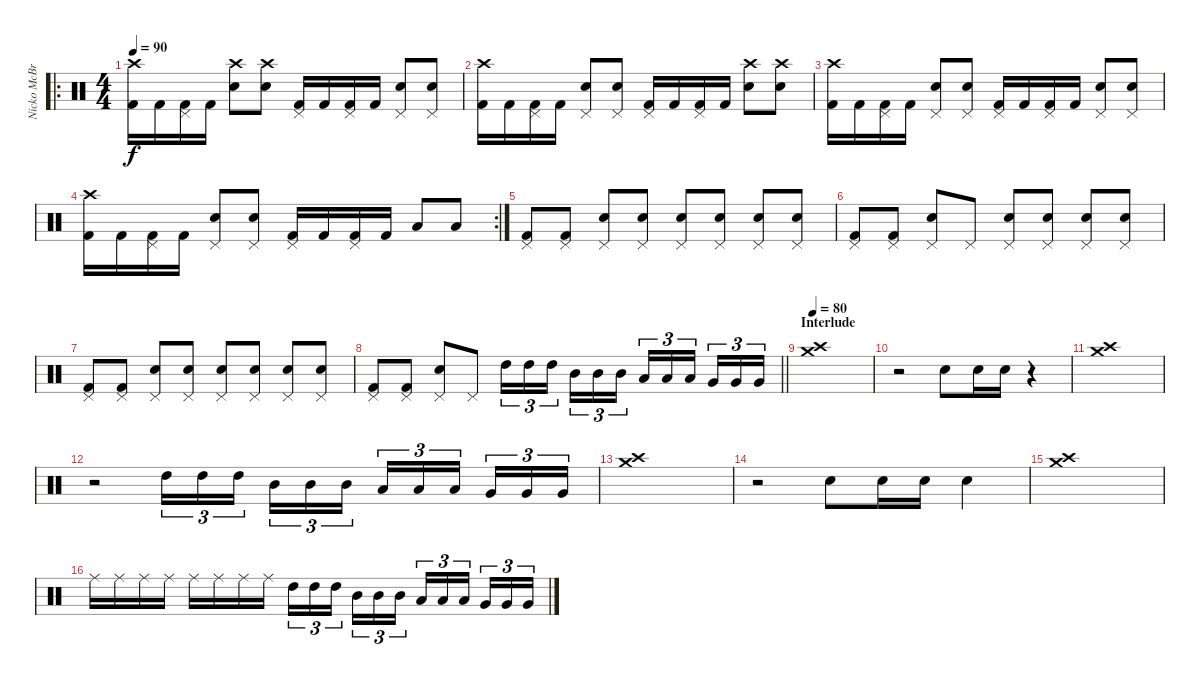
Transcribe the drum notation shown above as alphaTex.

\track ("Nicko McBrain" "Nicko McBr") {instrument percussion}
\staff {score}
\articulation defaults
\ro
\ts (4 4)
\tempo 90
\clef neutral
\ks c
("Crash high (hit)" "Kick (hit) 2").16{dy f} "Kick (hit) 2".16 ("Pedal Hi-Hat (hit)" "Kick (hit) 2").16 "Kick (hit) 2".16 ("Crash high (hit)" "Snare (hit) 2").8 ("Crash high (hit)" "Snare (hit) 2").8 ("Pedal Hi-Hat (hit)" "Kick (hit) 2").16 "Kick (hit) 2".16 ("Pedal Hi-Hat (hit)" "Kick (hit) 2").16 "Kick (hit) 2".16 ("Pedal Hi-Hat (hit)" "Snare (hit) 2").8 ("Pedal Hi-Hat (hit)" "Snare (hit) 2").8 |
("Crash high (hit)" "Kick (hit) 2").16 "Kick (hit) 2".16 ("Pedal Hi-Hat (hit)" "Kick (hit) 2").16 "Kick (hit) 2".16 ("Pedal Hi-Hat (hit)" "Snare (hit) 2").8 ("Pedal Hi-Hat (hit)" "Snare (hit) 2").8 ("Pedal Hi-Hat (hit)" "Kick (hit) 2").16 "Kick (hit) 2".16 ("Pedal Hi-Hat (hit)" "Kick (hit) 2").16 "Kick (hit) 2".16 ("Crash high (hit)" "Snare (hit) 2").8 ("Crash high (hit)" "Snare (hit) 2").8 |
("Crash high (hit)" "Kick (hit) 2").16 "Kick (hit) 2".16 ("Pedal Hi-Hat (hit)" "Kick (hit) 2").16 "Kick (hit) 2".16 ("Pedal Hi-Hat (hit)" "Snare (hit) 2").8 ("Pedal Hi-Hat (hit)" "Snare (hit) 2").8 ("Pedal Hi-Hat (hit)" "Kick (hit) 2").16 "Kick (hit) 2".16 ("Pedal Hi-Hat (hit)" "Kick (hit) 2").16 "Kick (hit) 2".16 ("Pedal Hi-Hat (hit)" "Snare (hit) 2").8 ("Pedal Hi-Hat (hit)" "Snare (hit) 2").8 |
\rc 2
("Crash high (hit)" "Kick (hit) 2").16 "Kick (hit) 2".16 ("Pedal Hi-Hat (hit)" "Kick (hit) 2").16 "Kick (hit) 2".16 ("Pedal Hi-Hat (hit)" "Snare (hit) 2").8 ("Pedal Hi-Hat (hit)" "Snare (hit) 2").8 ("Pedal Hi-Hat (hit)" "Kick (hit) 2").16 "Kick (hit) 2".16 ("Pedal Hi-Hat (hit)" "Kick (hit) 2").16 "Kick (hit) 2".16 "Low Floor Tom (hit)".8 "Low Floor Tom (hit)".8 |
("Pedal Hi-Hat (hit)" "Kick (hit) 2").8 ("Pedal Hi-Hat (hit)" "Kick (hit) 2").8 ("Pedal Hi-Hat (hit)" "Snare (hit) 2").8 ("Pedal Hi-Hat (hit)" "Snare (hit) 2").8 ("Pedal Hi-Hat (hit)" "Snare (hit) 2").8 ("Pedal Hi-Hat (hit)" "Snare (hit) 2").8 ("Pedal Hi-Hat (hit)" "Snare (hit) 2").8 ("Pedal Hi-Hat (hit)" "Snare (hit) 2").8 |
("Pedal Hi-Hat (hit)" "Kick (hit) 2").8 ("Pedal Hi-Hat (hit)" "Kick (hit) 2").8 ("Pedal Hi-Hat (hit)" "Snare (hit) 2").8 "Pedal Hi-Hat (hit)".8 ("Pedal Hi-Hat (hit)" "Snare (hit) 2").8 ("Pedal Hi-Hat (hit)" "Snare (hit) 2").8 ("Pedal Hi-Hat (hit)" "Snare (hit) 2").8 ("Pedal Hi-Hat (hit)" "Snare (hit) 2").8 |
("Pedal Hi-Hat (hit)" "Kick (hit) 2").8 ("Pedal Hi-Hat (hit)" "Kick (hit) 2").8 ("Pedal Hi-Hat (hit)" "Snare (hit) 2").8 ("Pedal Hi-Hat (hit)" "Snare (hit) 2").8 ("Pedal Hi-Hat (hit)" "Snare (hit) 2").8 ("Pedal Hi-Hat (hit)" "Snare (hit) 2").8 ("Pedal Hi-Hat (hit)" "Snare (hit) 2").8 ("Pedal Hi-Hat (hit)" "Snare (hit) 2").8 |
\barLineRight lightlight
("Pedal Hi-Hat (hit)" "Kick (hit) 2").8 ("Pedal Hi-Hat (hit)" "Kick (hit) 2").8 ("Pedal Hi-Hat (hit)" "Snare (hit) 2").8 "Pedal Hi-Hat (hit)".8 "High Tom (hit)".16{tu (3 2)} "High Tom (hit)".16{tu (3 2)} "High Tom (hit)".16{tu (3 2) beam splitsecondary} "Mid Tom (hit)".16{tu (3 2)} "Mid Tom (hit)".16{tu (3 2)} "Mid Tom (hit)".16{tu (3 2)} "Low Tom (hit)".16{tu (3 2)} "Low Tom (hit)".16{tu (3 2)} "Low Tom (hit)".16{tu (3 2) beam splitsecondary} "Very Low Tom (hit)".16{tu (3 2)} "Very Low Tom (hit)".16{tu (3 2)} "Very Low Tom (hit)".16{tu (3 2)} |
\section ("" "Interlude")
\tempo 80
("Crash high (hit)" "Crash medium (hit)").1 |
r.2 "Snare (hit) 2".8 "Snare (hit) 2".16 "Snare (hit) 2".16 r.4 |
("Crash high (hit)" "Crash medium (hit)").1 |
r.2 "High Tom (hit)".16{tu (3 2)} "High Tom (hit)".16{tu (3 2)} "High Tom (hit)".16{tu (3 2) beam splitsecondary} "Mid Tom (hit)".16{tu (3 2)} "Mid Tom (hit)".16{tu (3 2)} "Mid Tom (hit)".16{tu (3 2)} "Low Tom (hit)".16{tu (3 2)} "Low Tom (hit)".16{tu (3 2)} "Low Tom (hit)".16{tu (3 2) beam splitsecondary} "Very Low Tom (hit)".16{tu (3 2)} "Very Low Tom (hit)".16{tu (3 2)} "Very Low Tom (hit)".16{tu (3 2)} |
("Crash high (hit)" "Crash medium (hit)").1 |
r.2 "Snare (hit) 2".8 "Snare (hit) 2".16 "Snare (hit) 2".16 "Snare (hit) 2".4 |
("Crash high (hit)" "Crash medium (hit)").1 |
"Ride (middle)".16 "Ride (middle)".16 "Ride (middle)".16 "Ride (middle)".16 "Ride (middle)".16 "Ride (middle)".16 "Ride (middle)".16 "Ride (middle)".16 "High Tom (hit)".16{tu (3 2)} "High Tom (hit)".16{tu (3 2)} "High Tom (hit)".16{tu (3 2) beam splitsecondary} "Mid Tom (hit)".16{tu (3 2)} "Mid Tom (hit)".16{tu (3 2)} "Mid Tom (hit)".16{tu (3 2)} "Low Tom (hit)".16{tu (3 2)} "Low Tom (hit)".16{tu (3 2)} "Low Tom (hit)".16{tu (3 2) beam splitsecondary} "Very Low Tom (hit)".16{tu (3 2)} "Very Low Tom (hit)".16{tu (3 2)} "Very Low Tom (hit)".16{tu (3 2)}
